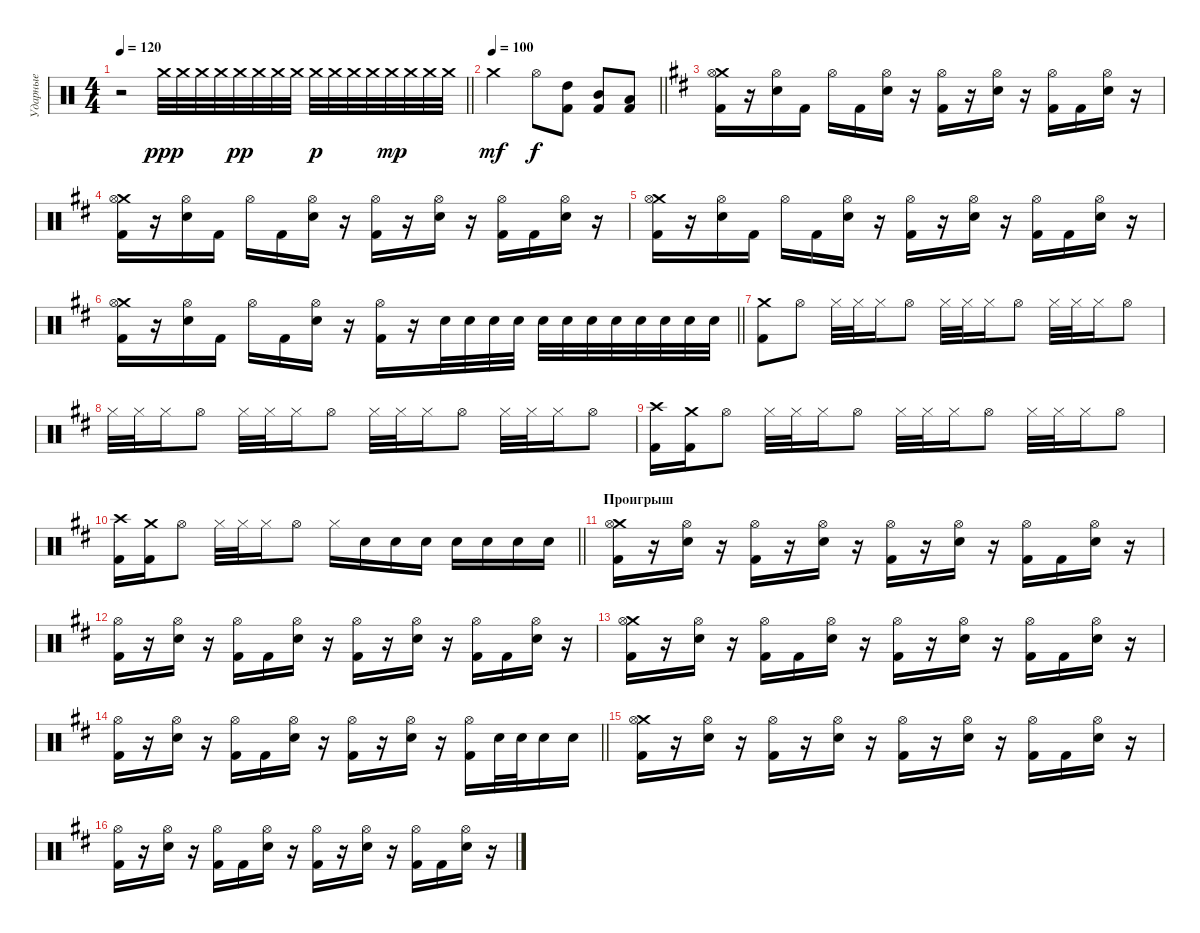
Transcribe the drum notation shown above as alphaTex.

\track ("Ударные" "Ударные") {instrument percussion}
\staff {score}
\articulation defaults
\ts (4 4)
\tempo 120
\clef neutral
\barLineRight lightlight
\ks c
r.2{dy f} "Crash medium (hit)".32{dy ppp} "Crash medium (hit)".32 "Crash medium (hit)".32 "Crash medium (hit)".32 "Crash medium (hit)".32{dy pp} "Crash medium (hit)".32 "Crash medium (hit)".32 "Crash medium (hit)".32 "Crash medium (hit)".32{dy p} "Crash medium (hit)".32 "Crash medium (hit)".32 "Crash medium (hit)".32 "Crash medium (hit)".32{dy mp} "Crash medium (hit)".32 "Crash medium (hit)".32 "Crash medium (hit)".32 |
\section ("" "")
\tempo 100
\barLineRight lightlight "Crash medium (hit)".2{dy mf} "Hi-Hat (open)".8{dy f}
("Kick (hit) 2" "High Tom (hit)").8 ("Kick (hit) 2" "Mid Tom (hit)").8 ("Kick (hit) 2" "Low Tom (hit)").8 |
\section ("" "")
\ks d
("Crash medium (hit)" "Kick (hit) 2" "Hi-Hat (open)").16 r.16 ("Electric Snare (hit)" "Hi-Hat (open)").16 "Kick (hit) 2".16 "Hi-Hat (open)".16 "Kick (hit) 2".16 ("Electric Snare (hit)" "Hi-Hat (open)").16 r.16 ("Kick (hit) 2" "Hi-Hat (open)").16 r.16 ("Electric Snare (hit)" "Hi-Hat (open)").16 r.16 ("Kick (hit) 2" "Hi-Hat (open)").16 "Kick (hit) 2".16 ("Electric Snare (hit)" "Hi-Hat (open)").16 r.16 |
("Crash medium (hit)" "Kick (hit) 2" "Hi-Hat (open)").16 r.16 ("Electric Snare (hit)" "Hi-Hat (open)").16 "Kick (hit) 2".16 "Hi-Hat (open)".16 "Kick (hit) 2".16 ("Electric Snare (hit)" "Hi-Hat (open)").16 r.16 ("Kick (hit) 2" "Hi-Hat (open)").16 r.16 ("Electric Snare (hit)" "Hi-Hat (open)").16 r.16 ("Kick (hit) 2" "Hi-Hat (open)").16 "Kick (hit) 2".16 ("Electric Snare (hit)" "Hi-Hat (open)").16 r.16 |
("Crash medium (hit)" "Kick (hit) 2" "Hi-Hat (open)").16 r.16 ("Electric Snare (hit)" "Hi-Hat (open)").16 "Kick (hit) 2".16 "Hi-Hat (open)".16 "Kick (hit) 2".16 ("Electric Snare (hit)" "Hi-Hat (open)").16 r.16 ("Kick (hit) 2" "Hi-Hat (open)").16 r.16 ("Electric Snare (hit)" "Hi-Hat (open)").16 r.16 ("Kick (hit) 2" "Hi-Hat (open)").16 "Kick (hit) 2".16 ("Electric Snare (hit)" "Hi-Hat (open)").16 r.16 |
\barLineRight lightlight
("Crash medium (hit)" "Kick (hit) 2" "Hi-Hat (open)").16 r.16 ("Electric Snare (hit)" "Hi-Hat (open)").16 "Kick (hit) 2".16 "Hi-Hat (open)".16 "Kick (hit) 2".16 ("Electric Snare (hit)" "Hi-Hat (open)").16 r.16 ("Kick (hit) 2" "Hi-Hat (open)").16 r.16 "Electric Snare (hit)".32 "Electric Snare (hit)".32 "Electric Snare (hit)".32 "Electric Snare (hit)".32 "Electric Snare (hit)".32 "Electric Snare (hit)".32 "Electric Snare (hit)".32 "Electric Snare (hit)".32 "Electric Snare (hit)".32 "Electric Snare (hit)".32 "Electric Snare (hit)".32 "Electric Snare (hit)".32 |
\section ("" "")
("Crash medium (hit)" "Kick (hit) 2").8 "Hi-Hat (open)".8 "Hi-Hat (closed)".32 "Hi-Hat (closed)".32 "Hi-Hat (closed)".16 "Hi-Hat (open)".8 "Hi-Hat (closed)".32 "Hi-Hat (closed)".32 "Hi-Hat (closed)".16 "Hi-Hat (open)".8 "Hi-Hat (closed)".32 "Hi-Hat (closed)".32 "Hi-Hat (closed)".16 "Hi-Hat (open)".8 |
"Hi-Hat (closed)".32 "Hi-Hat (closed)".32 "Hi-Hat (closed)".16 "Hi-Hat (open)".8 "Hi-Hat (closed)".32 "Hi-Hat (closed)".32 "Hi-Hat (closed)".16 "Hi-Hat (open)".8 "Hi-Hat (closed)".32 "Hi-Hat (closed)".32 "Hi-Hat (closed)".16 "Hi-Hat (open)".8 "Hi-Hat (closed)".32 "Hi-Hat (closed)".32 "Hi-Hat (closed)".16 "Hi-Hat (open)".8 |
("Crash high (hit)" "Kick (hit) 2").16 ("Crash medium (hit)" "Kick (hit) 2").16 "Hi-Hat (open)".8 "Hi-Hat (closed)".32 "Hi-Hat (closed)".32 "Hi-Hat (closed)".16 "Hi-Hat (open)".8 "Hi-Hat (closed)".32 "Hi-Hat (closed)".32 "Hi-Hat (closed)".16 "Hi-Hat (open)".8 "Hi-Hat (closed)".32 "Hi-Hat (closed)".32 "Hi-Hat (closed)".16 "Hi-Hat (open)".8 |
\barLineRight lightlight
("Crash high (hit)" "Kick (hit) 2").16 ("Crash medium (hit)" "Kick (hit) 2").16 "Hi-Hat (open)".8 "Hi-Hat (closed)".32 "Hi-Hat (closed)".32 "Hi-Hat (closed)".16 "Hi-Hat (open)".8 "Hi-Hat (closed)".16 "Electric Snare (hit)".16 "Electric Snare (hit)".16 "Electric Snare (hit)".16 "Electric Snare (hit)".16 "Electric Snare (hit)".16 "Electric Snare (hit)".16 "Electric Snare (hit)".16 |
\section ("" "Проигрыш")
("Crash medium (hit)" "Kick (hit) 2" "Hi-Hat (open)").16 r.16 ("Electric Snare (hit)" "Hi-Hat (open)").16 r.16 ("Kick (hit) 2" "Hi-Hat (open)").16 r.16 ("Electric Snare (hit)" "Hi-Hat (open)").16 r.16 ("Kick (hit) 2" "Hi-Hat (open)").16 r.16 ("Electric Snare (hit)" "Hi-Hat (open)").16 r.16 ("Kick (hit) 2" "Hi-Hat (open)").16 "Kick (hit) 2".16 ("Electric Snare (hit)" "Hi-Hat (open)").16 r.16 |
("Kick (hit) 2" "Hi-Hat (open)").16 r.16 ("Electric Snare (hit)" "Hi-Hat (open)").16 r.16 ("Kick (hit) 2" "Hi-Hat (open)").16 "Kick (hit) 2".16 ("Electric Snare (hit)" "Hi-Hat (open)").16 r.16 ("Kick (hit) 2" "Hi-Hat (open)").16 r.16 ("Electric Snare (hit)" "Hi-Hat (open)").16 r.16 ("Kick (hit) 2" "Hi-Hat (open)").16 "Kick (hit) 2".16 ("Electric Snare (hit)" "Hi-Hat (open)").16 r.16 |
("Crash medium (hit)" "Kick (hit) 2" "Hi-Hat (open)").16 r.16 ("Electric Snare (hit)" "Hi-Hat (open)").16 r.16 ("Kick (hit) 2" "Hi-Hat (open)").16 "Kick (hit) 2".16 ("Electric Snare (hit)" "Hi-Hat (open)").16 r.16 ("Kick (hit) 2" "Hi-Hat (open)").16 r.16 ("Electric Snare (hit)" "Hi-Hat (open)").16 r.16 ("Kick (hit) 2" "Hi-Hat (open)").16 "Kick (hit) 2".16 ("Electric Snare (hit)" "Hi-Hat (open)").16 r.16 |
\barLineRight lightlight
("Kick (hit) 2" "Hi-Hat (open)").16 r.16 ("Electric Snare (hit)" "Hi-Hat (open)").16 r.16 ("Kick (hit) 2" "Hi-Hat (open)").16 "Kick (hit) 2".16 ("Electric Snare (hit)" "Hi-Hat (open)").16 r.16 ("Kick (hit) 2" "Hi-Hat (open)").16 r.16 ("Electric Snare (hit)" "Hi-Hat (open)").16 r.16 ("Kick (hit) 2" "Hi-Hat (open)").16 "Electric Snare (hit)".32 "Electric Snare (hit)".32 "Electric Snare (hit)".16 "Electric Snare (hit)".16 |
\section ("" "")
("Crash medium (hit)" "Kick (hit) 2" "Hi-Hat (open)").16 r.16 ("Electric Snare (hit)" "Hi-Hat (open)").16 r.16 ("Kick (hit) 2" "Hi-Hat (open)").16 r.16 ("Electric Snare (hit)" "Hi-Hat (open)").16 r.16 ("Kick (hit) 2" "Hi-Hat (open)").16 r.16 ("Electric Snare (hit)" "Hi-Hat (open)").16 r.16 ("Kick (hit) 2" "Hi-Hat (open)").16 "Kick (hit) 2".16 ("Electric Snare (hit)" "Hi-Hat (open)").16 r.16 |
("Kick (hit) 2" "Hi-Hat (open)").16 r.16 ("Electric Snare (hit)" "Hi-Hat (open)").16 r.16 ("Kick (hit) 2" "Hi-Hat (open)").16 "Kick (hit) 2".16 ("Electric Snare (hit)" "Hi-Hat (open)").16 r.16 ("Kick (hit) 2" "Hi-Hat (open)").16 r.16 ("Electric Snare (hit)" "Hi-Hat (open)").16 r.16 ("Kick (hit) 2" "Hi-Hat (open)").16 "Kick (hit) 2".16 ("Electric Snare (hit)" "Hi-Hat (open)").16 r.16
